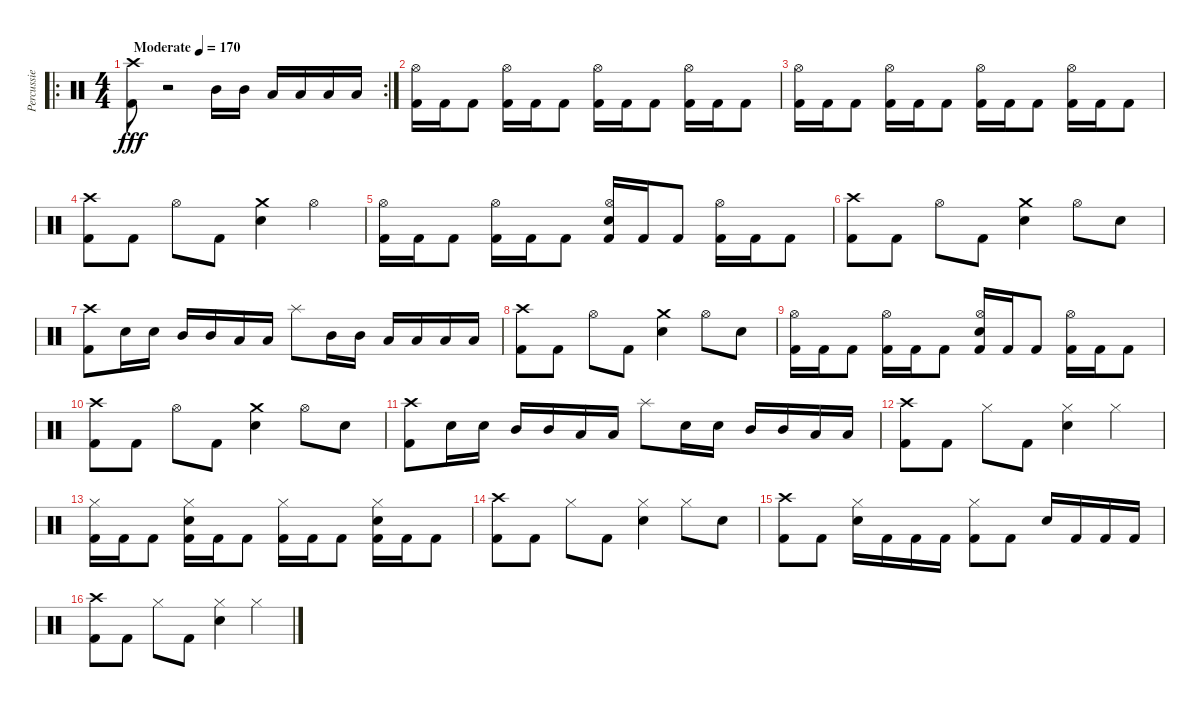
\track ("Percussie" "Percussie") {instrument percussion}
\staff {score}
\articulation defaults
\ro
\rc 2
\ts (4 4)
\tempo (170 "Moderate")
\clef neutral
\ks c
("Crash high (hit)" "Kick (hit) 2").8{dy fff} r.2{volume 0} "Mid Tom (hit)".16{volume 16} "Mid Tom (hit)".16 "Low Tom (hit)".16 "Low Tom (hit)".16 "Low Floor Tom (hit)".16 "Low Floor Tom (hit)".16 |
("Hi-Hat (open)" "Kick (hit) 2").16 "Kick (hit) 2".16 "Kick (hit) 2".8 ("Hi-Hat (open)" "Kick (hit) 2").16 "Kick (hit) 2".16 "Kick (hit) 2".8 ("Hi-Hat (open)" "Kick (hit) 2").16 "Kick (hit) 2".16 "Kick (hit) 2".8 ("Hi-Hat (open)" "Kick (hit) 2").16 "Kick (hit) 2".16 "Kick (hit) 2".8 |
("Hi-Hat (open)" "Kick (hit) 2").16 "Kick (hit) 2".16 "Kick (hit) 2".8 ("Hi-Hat (open)" "Kick (hit) 2").16 "Kick (hit) 2".16 "Kick (hit) 2".8 ("Hi-Hat (open)" "Kick (hit) 2").16 "Kick (hit) 2".16 "Kick (hit) 2".8 ("Hi-Hat (open)" "Kick (hit) 2").16 "Kick (hit) 2".16 "Kick (hit) 2".8 |
("Crash high (hit)" "Kick (hit) 2").8 "Kick (hit) 2".8 "Hi-Hat (open)".8 "Kick (hit) 2".8 ("Crash medium (hit)" "Electric Snare (hit)").4 "Hi-Hat (open)".4 |
("Hi-Hat (open)" "Kick (hit) 2").16 "Kick (hit) 2".16 "Kick (hit) 2".8 ("Hi-Hat (open)" "Kick (hit) 2").16 "Kick (hit) 2".16 "Kick (hit) 2".8 ("Hi-Hat (open)" "Electric Snare (hit)" "Kick (hit) 2").16 "Kick (hit) 2".16 "Kick (hit) 2".8 ("Hi-Hat (open)" "Kick (hit) 2").16 "Kick (hit) 2".16 "Kick (hit) 2".8 |
("Crash high (hit)" "Kick (hit) 2").8 "Kick (hit) 2".8 "Hi-Hat (open)".8 "Kick (hit) 2".8 ("Crash medium (hit)" "Electric Snare (hit)").4 "Hi-Hat (open)".8 "Electric Snare (hit)".8 |
("Crash high (hit)" "Kick (hit) 2").8 "Electric Snare (hit)".16 "Electric Snare (hit)".16 "Mid Tom (hit)".16 "Mid Tom (hit)".16 "Low Tom (hit)".16 "Low Tom (hit)".16 "Splash (hit)".8 "Mid Tom (hit)".16 "Mid Tom (hit)".16 "Low Tom (hit)".16 "Low Tom (hit)".16 "Low Floor Tom (hit)".16 "Low Floor Tom (hit)".16 |
("Crash high (hit)" "Kick (hit) 2").8 "Kick (hit) 2".8 "Hi-Hat (open)".8 "Kick (hit) 2".8 ("Crash medium (hit)" "Electric Snare (hit)").4 "Hi-Hat (open)".8 "Electric Snare (hit)".8 |
("Hi-Hat (open)" "Kick (hit) 2").16 "Kick (hit) 2".16 "Kick (hit) 2".8 ("Hi-Hat (open)" "Kick (hit) 2").16 "Kick (hit) 2".16 "Kick (hit) 2".8 ("Hi-Hat (open)" "Electric Snare (hit)" "Kick (hit) 2").16 "Kick (hit) 2".16 "Kick (hit) 2".8 ("Hi-Hat (open)" "Kick (hit) 2").16 "Kick (hit) 2".16 "Kick (hit) 2".8 |
("Crash high (hit)" "Kick (hit) 2").8 "Kick (hit) 2".8 "Hi-Hat (open)".8 "Kick (hit) 2".8 ("Crash medium (hit)" "Electric Snare (hit)").4 "Hi-Hat (open)".8 "Electric Snare (hit)".8 |
("Crash high (hit)" "Kick (hit) 2").8 "Electric Snare (hit)".16 "Electric Snare (hit)".16 "Mid Tom (hit)".16 "Mid Tom (hit)".16 "Low Tom (hit)".16 "Low Tom (hit)".16 "Splash (hit)".8 "Electric Snare (hit)".16 "Electric Snare (hit)".16 "Mid Tom (hit)".16 "Mid Tom (hit)".16 "Low Floor Tom (hit)".16 "Low Floor Tom (hit)".16 |
("Crash high (hit)" "Kick (hit) 2").8 "Kick (hit) 2".8 "Hi-Hat (closed)".8 "Kick (hit) 2".8 ("Hi-Hat (closed)" "Electric Snare (hit)").4 "Hi-Hat (closed)".4 |
("Hi-Hat (closed)" "Kick (hit) 2").16 "Kick (hit) 2".16 "Kick (hit) 2".8 ("Hi-Hat (closed)" "Electric Snare (hit)" "Kick (hit) 2").16 "Kick (hit) 2".16 "Kick (hit) 2".8 ("Hi-Hat (closed)" "Kick (hit) 2").16 "Kick (hit) 2".16 "Kick (hit) 2".8 ("Hi-Hat (closed)" "Electric Snare (hit)" "Kick (hit) 2").16 "Kick (hit) 2".16 "Kick (hit) 2".8 |
("Crash high (hit)" "Kick (hit) 2").8 "Kick (hit) 2".8 "Hi-Hat (closed)".8 "Kick (hit) 2".8 ("Hi-Hat (closed)" "Electric Snare (hit)").4 "Hi-Hat (closed)".8 "Electric Snare (hit)".8 |
("Crash high (hit)" "Kick (hit) 2").8 "Kick (hit) 2".8 ("Hi-Hat (closed)" "Electric Snare (hit)").16 "Kick (hit) 2".16 "Kick (hit) 2".16 "Kick (hit) 2".16 ("Hi-Hat (closed)" "Kick (hit) 2").8 "Kick (hit) 2".8 "Electric Snare (hit)".16 "Kick (hit) 2".16 "Kick (hit) 2".16 "Kick (hit) 2".16 |
("Crash high (hit)" "Kick (hit) 2").8 "Kick (hit) 2".8 "Hi-Hat (closed)".8 "Kick (hit) 2".8 ("Hi-Hat (closed)" "Electric Snare (hit)").4 "Hi-Hat (closed)".4
